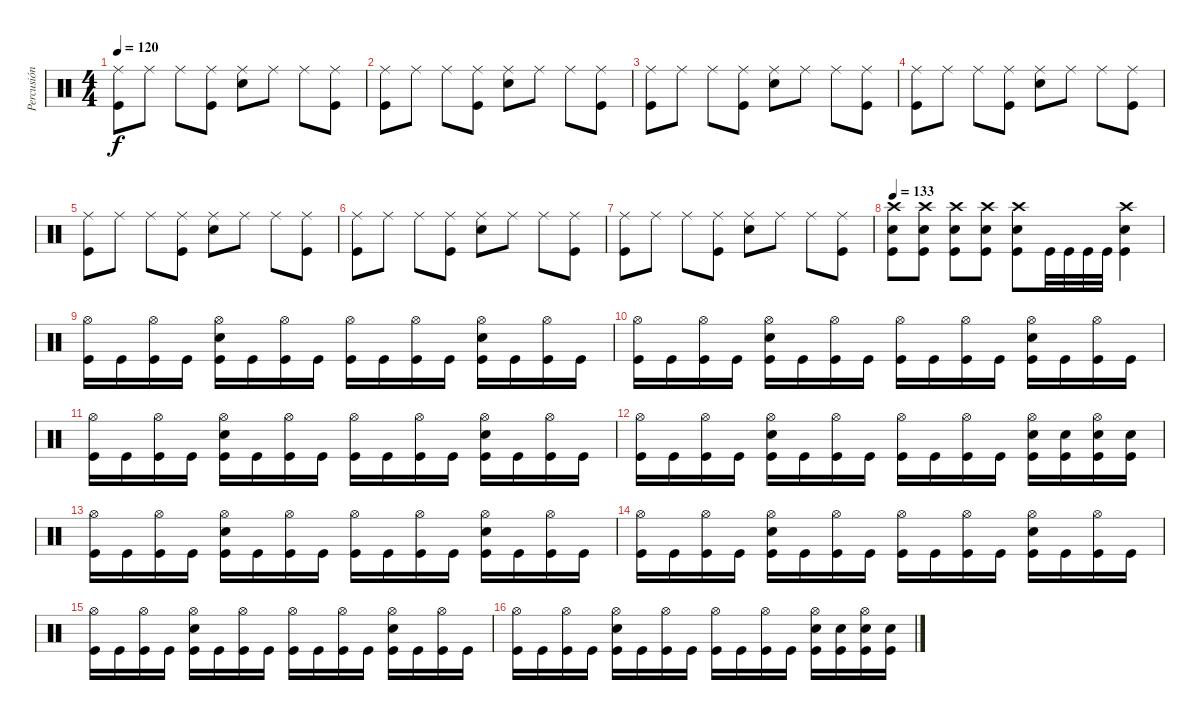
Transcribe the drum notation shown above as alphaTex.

\track ("Percusión" "Percusión") {instrument percussion}
\staff {score}
\articulation defaults
\ts (4 4)
\tempo 120
\clef neutral
\ks c
("Ride (middle)" "Kick (hit)").8{dy f} "Ride (middle)".8 "Ride (middle)".8 ("Ride (middle)" "Kick (hit)").8 ("Ride (middle)" "Snare (hit) 2").8 "Ride (middle)".8 "Ride (middle)".8 ("Ride (middle)" "Kick (hit)").8 |
("Ride (middle)" "Kick (hit)").8 "Ride (middle)".8 "Ride (middle)".8 ("Ride (middle)" "Kick (hit)").8 ("Ride (middle)" "Snare (hit) 2").8 "Ride (middle)".8 "Ride (middle)".8 ("Ride (middle)" "Kick (hit)").8 |
("Ride (middle)" "Kick (hit)").8 "Ride (middle)".8 "Ride (middle)".8 ("Ride (middle)" "Kick (hit)").8 ("Ride (middle)" "Snare (hit) 2").8 "Ride (middle)".8 "Ride (middle)".8 ("Ride (middle)" "Kick (hit)").8 |
("Ride (middle)" "Kick (hit)").8 "Ride (middle)".8 "Ride (middle)".8 ("Ride (middle)" "Kick (hit)").8 ("Ride (middle)" "Snare (hit) 2").8 "Ride (middle)".8 "Ride (middle)".8 ("Ride (middle)" "Kick (hit)").8 |
("Ride (middle)" "Kick (hit)").8 "Ride (middle)".8 "Ride (middle)".8 ("Ride (middle)" "Kick (hit)").8 ("Ride (middle)" "Snare (hit) 2").8 "Ride (middle)".8 "Ride (middle)".8 ("Ride (middle)" "Kick (hit)").8 |
("Ride (middle)" "Kick (hit)").8 "Ride (middle)".8 "Ride (middle)".8 ("Ride (middle)" "Kick (hit)").8 ("Ride (middle)" "Snare (hit) 2").8 "Ride (middle)".8 "Ride (middle)".8 ("Ride (middle)" "Kick (hit)").8 |
("Ride (middle)" "Kick (hit)").8 "Ride (middle)".8 "Ride (middle)".8 ("Ride (middle)" "Kick (hit)").8 ("Ride (middle)" "Snare (hit) 2").8 "Ride (middle)".8 "Ride (middle)".8 ("Ride (middle)" "Kick (hit)").8 |
\tempo 133
("Kick (hit)" "Snare (hit) 2" "Crash high (hit)").8 ("Kick (hit)" "Snare (hit) 2" "Crash high (hit)").8 ("Kick (hit)" "Snare (hit) 2" "Crash high (hit)").8 ("Kick (hit)" "Snare (hit) 2" "Crash high (hit)").8 ("Kick (hit)" "Snare (hit) 2" "Crash high (hit)").8 "Kick (hit)".32 "Kick (hit)".32 "Kick (hit)".32 "Kick (hit)".32 ("Kick (hit)" "Snare (hit) 2" "Crash high (hit)").4 |
("Kick (hit)" "Hi-Hat (open)").16 "Kick (hit)".16 ("Kick (hit)" "Hi-Hat (open)").16 "Kick (hit)".16 ("Kick (hit)" "Hi-Hat (open)" "Snare (hit) 2").16 "Kick (hit)".16 ("Kick (hit)" "Hi-Hat (open)").16 "Kick (hit)".16 ("Kick (hit)" "Hi-Hat (open)").16 "Kick (hit)".16 ("Kick (hit)" "Hi-Hat (open)").16 "Kick (hit)".16 ("Kick (hit)" "Hi-Hat (open)" "Snare (hit) 2").16 "Kick (hit)".16 ("Kick (hit)" "Hi-Hat (open)").16 "Kick (hit)".16 |
("Kick (hit)" "Hi-Hat (open)").16 "Kick (hit)".16 ("Kick (hit)" "Hi-Hat (open)").16 "Kick (hit)".16 ("Kick (hit)" "Hi-Hat (open)" "Snare (hit) 2").16 "Kick (hit)".16 ("Kick (hit)" "Hi-Hat (open)").16 "Kick (hit)".16 ("Kick (hit)" "Hi-Hat (open)").16 "Kick (hit)".16 ("Kick (hit)" "Hi-Hat (open)").16 "Kick (hit)".16 ("Kick (hit)" "Hi-Hat (open)" "Snare (hit) 2").16 "Kick (hit)".16 ("Kick (hit)" "Hi-Hat (open)").16 "Kick (hit)".16 |
("Kick (hit)" "Hi-Hat (open)").16 "Kick (hit)".16 ("Kick (hit)" "Hi-Hat (open)").16 "Kick (hit)".16 ("Kick (hit)" "Hi-Hat (open)" "Snare (hit) 2").16 "Kick (hit)".16 ("Kick (hit)" "Hi-Hat (open)").16 "Kick (hit)".16 ("Kick (hit)" "Hi-Hat (open)").16 "Kick (hit)".16 ("Kick (hit)" "Hi-Hat (open)").16 "Kick (hit)".16 ("Kick (hit)" "Hi-Hat (open)" "Snare (hit) 2").16 "Kick (hit)".16 ("Kick (hit)" "Hi-Hat (open)").16 "Kick (hit)".16 |
("Kick (hit)" "Hi-Hat (open)").16 "Kick (hit)".16 ("Kick (hit)" "Hi-Hat (open)").16 "Kick (hit)".16 ("Kick (hit)" "Hi-Hat (open)" "Snare (hit) 2").16 "Kick (hit)".16 ("Kick (hit)" "Hi-Hat (open)").16 "Kick (hit)".16 ("Kick (hit)" "Hi-Hat (open)").16 "Kick (hit)".16 ("Kick (hit)" "Hi-Hat (open)").16 "Kick (hit)".16 ("Kick (hit)" "Hi-Hat (open)" "Snare (hit) 2").16 ("Kick (hit)" "Snare (hit) 2").16 ("Kick (hit)" "Hi-Hat (open)" "Snare (hit) 2").16 ("Kick (hit)" "Snare (hit) 2").16 |
("Kick (hit)" "Hi-Hat (open)").16 "Kick (hit)".16 ("Kick (hit)" "Hi-Hat (open)").16 "Kick (hit)".16 ("Kick (hit)" "Hi-Hat (open)" "Snare (hit) 2").16 "Kick (hit)".16 ("Kick (hit)" "Hi-Hat (open)").16 "Kick (hit)".16 ("Kick (hit)" "Hi-Hat (open)").16 "Kick (hit)".16 ("Kick (hit)" "Hi-Hat (open)").16 "Kick (hit)".16 ("Kick (hit)" "Hi-Hat (open)" "Snare (hit) 2").16 "Kick (hit)".16 ("Kick (hit)" "Hi-Hat (open)").16 "Kick (hit)".16 |
("Kick (hit)" "Hi-Hat (open)").16 "Kick (hit)".16 ("Kick (hit)" "Hi-Hat (open)").16 "Kick (hit)".16 ("Kick (hit)" "Hi-Hat (open)" "Snare (hit) 2").16 "Kick (hit)".16 ("Kick (hit)" "Hi-Hat (open)").16 "Kick (hit)".16 ("Kick (hit)" "Hi-Hat (open)").16 "Kick (hit)".16 ("Kick (hit)" "Hi-Hat (open)").16 "Kick (hit)".16 ("Kick (hit)" "Hi-Hat (open)" "Snare (hit) 2").16 "Kick (hit)".16 ("Kick (hit)" "Hi-Hat (open)").16 "Kick (hit)".16 |
("Kick (hit)" "Hi-Hat (open)").16 "Kick (hit)".16 ("Kick (hit)" "Hi-Hat (open)").16 "Kick (hit)".16 ("Kick (hit)" "Hi-Hat (open)" "Snare (hit) 2").16 "Kick (hit)".16 ("Kick (hit)" "Hi-Hat (open)").16 "Kick (hit)".16 ("Kick (hit)" "Hi-Hat (open)").16 "Kick (hit)".16 ("Kick (hit)" "Hi-Hat (open)").16 "Kick (hit)".16 ("Kick (hit)" "Hi-Hat (open)" "Snare (hit) 2").16 "Kick (hit)".16 ("Kick (hit)" "Hi-Hat (open)").16 "Kick (hit)".16 |
("Kick (hit)" "Hi-Hat (open)").16 "Kick (hit)".16 ("Kick (hit)" "Hi-Hat (open)").16 "Kick (hit)".16 ("Kick (hit)" "Hi-Hat (open)" "Snare (hit) 2").16 "Kick (hit)".16 ("Kick (hit)" "Hi-Hat (open)").16 "Kick (hit)".16 ("Kick (hit)" "Hi-Hat (open)").16 "Kick (hit)".16 ("Kick (hit)" "Hi-Hat (open)").16 "Kick (hit)".16 ("Kick (hit)" "Hi-Hat (open)" "Snare (hit) 2").16 ("Kick (hit)" "Snare (hit) 2").16 ("Kick (hit)" "Hi-Hat (open)" "Snare (hit) 2").16 ("Kick (hit)" "Snare (hit) 2").16
